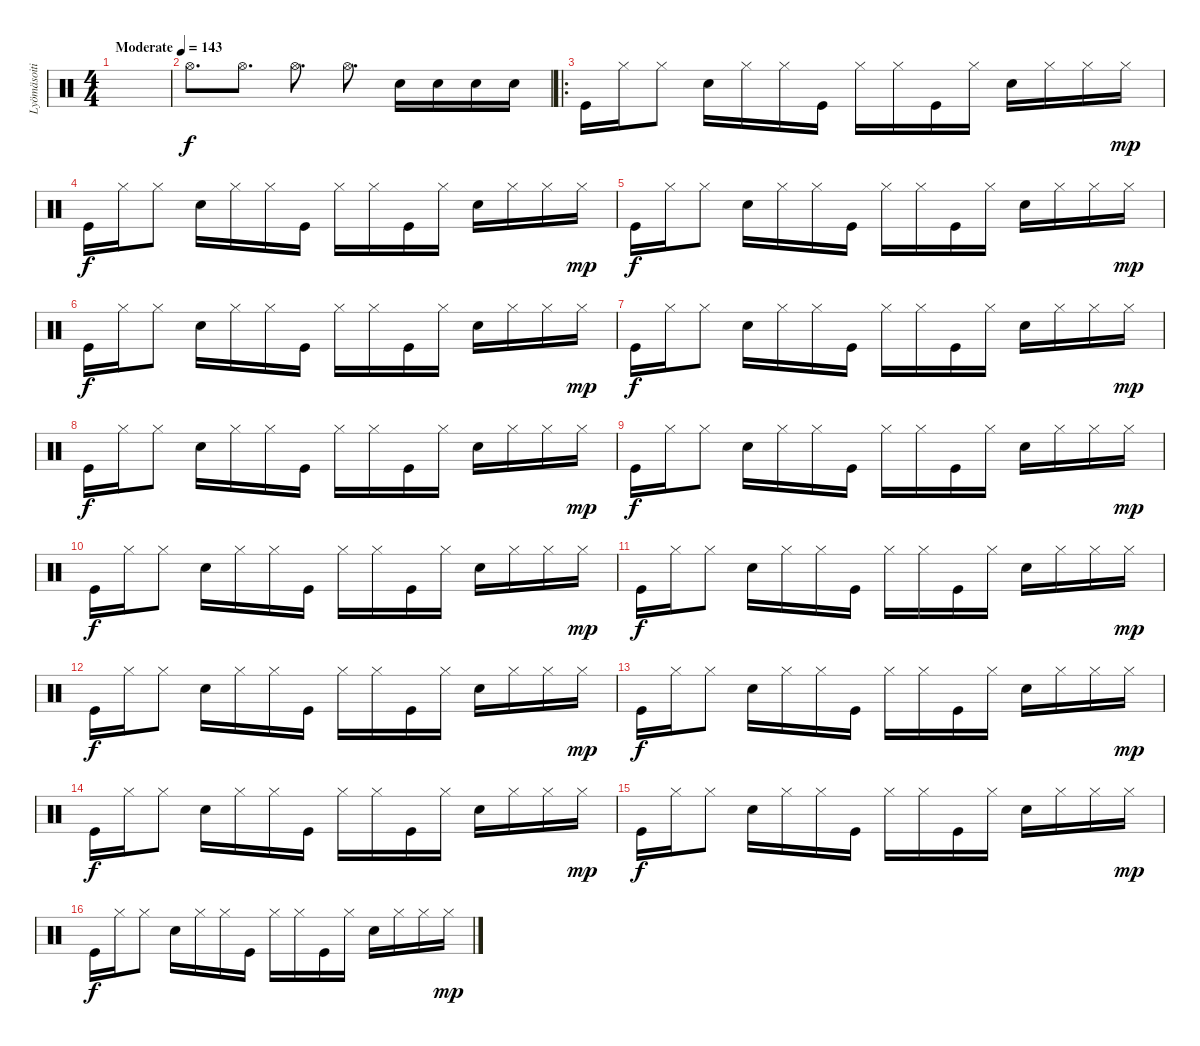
\track ("Lyömäsoitin" "Lyömäsoiti") {instrument percussion}
\staff {score}
\articulation defaults
\ts (4 4)
\tempo (143 "Moderate")
\clef neutral
\ks c
|
"Hi-Hat (open)".8{d} "Hi-Hat (open)".8{d} "Hi-Hat (open)".8{d} "Hi-Hat (open)".8{d} "Snare (hit) 2".16 "Snare (hit) 2".16 "Snare (hit) 2".16 "Snare (hit) 2".16 |
\ro "Kick (hit)".16 "Hi-Hat (closed)".16 "Hi-Hat (closed)".8 "Snare (hit) 2".16 "Hi-Hat (closed)".16 "Hi-Hat (closed)".16 "Kick (hit)".16 "Hi-Hat (closed)".16 "Hi-Hat (closed)".16 "Kick (hit)".16 "Hi-Hat (closed)".16 "Snare (hit) 2".16 "Hi-Hat (closed)".16 "Hi-Hat (closed)".16 "Hi-Hat (closed)".16{dy mp}
|
"Kick (hit)".16{dy f} "Hi-Hat (closed)".16 "Hi-Hat (closed)".8 "Snare (hit) 2".16 "Hi-Hat (closed)".16 "Hi-Hat (closed)".16 "Kick (hit)".16 "Hi-Hat (closed)".16 "Hi-Hat (closed)".16 "Kick (hit)".16 "Hi-Hat (closed)".16 "Snare (hit) 2".16 "Hi-Hat (closed)".16 "Hi-Hat (closed)".16 "Hi-Hat (closed)".16{dy mp} |
"Kick (hit)".16{dy f} "Hi-Hat (closed)".16 "Hi-Hat (closed)".8 "Snare (hit) 2".16 "Hi-Hat (closed)".16 "Hi-Hat (closed)".16 "Kick (hit)".16 "Hi-Hat (closed)".16 "Hi-Hat (closed)".16 "Kick (hit)".16 "Hi-Hat (closed)".16 "Snare (hit) 2".16 "Hi-Hat (closed)".16 "Hi-Hat (closed)".16 "Hi-Hat (closed)".16{dy mp} |
"Kick (hit)".16{dy f} "Hi-Hat (closed)".16 "Hi-Hat (closed)".8 "Snare (hit) 2".16 "Hi-Hat (closed)".16 "Hi-Hat (closed)".16 "Kick (hit)".16 "Hi-Hat (closed)".16 "Hi-Hat (closed)".16 "Kick (hit)".16 "Hi-Hat (closed)".16 "Snare (hit) 2".16 "Hi-Hat (closed)".16 "Hi-Hat (closed)".16 "Hi-Hat (closed)".16{dy mp} |
"Kick (hit)".16{dy f} "Hi-Hat (closed)".16 "Hi-Hat (closed)".8 "Snare (hit) 2".16 "Hi-Hat (closed)".16 "Hi-Hat (closed)".16 "Kick (hit)".16 "Hi-Hat (closed)".16 "Hi-Hat (closed)".16 "Kick (hit)".16 "Hi-Hat (closed)".16 "Snare (hit) 2".16 "Hi-Hat (closed)".16 "Hi-Hat (closed)".16 "Hi-Hat (closed)".16{dy mp} |
"Kick (hit)".16{dy f} "Hi-Hat (closed)".16 "Hi-Hat (closed)".8 "Snare (hit) 2".16 "Hi-Hat (closed)".16 "Hi-Hat (closed)".16 "Kick (hit)".16 "Hi-Hat (closed)".16 "Hi-Hat (closed)".16 "Kick (hit)".16 "Hi-Hat (closed)".16 "Snare (hit) 2".16 "Hi-Hat (closed)".16 "Hi-Hat (closed)".16 "Hi-Hat (closed)".16{dy mp} |
"Kick (hit)".16{dy f} "Hi-Hat (closed)".16 "Hi-Hat (closed)".8 "Snare (hit) 2".16 "Hi-Hat (closed)".16 "Hi-Hat (closed)".16 "Kick (hit)".16 "Hi-Hat (closed)".16 "Hi-Hat (closed)".16 "Kick (hit)".16 "Hi-Hat (closed)".16 "Snare (hit) 2".16 "Hi-Hat (closed)".16 "Hi-Hat (closed)".16 "Hi-Hat (closed)".16{dy mp} |
"Kick (hit)".16{dy f} "Hi-Hat (closed)".16 "Hi-Hat (closed)".8 "Snare (hit) 2".16 "Hi-Hat (closed)".16 "Hi-Hat (closed)".16 "Kick (hit)".16 "Hi-Hat (closed)".16 "Hi-Hat (closed)".16 "Kick (hit)".16 "Hi-Hat (closed)".16 "Snare (hit) 2".16 "Hi-Hat (closed)".16 "Hi-Hat (closed)".16 "Hi-Hat (closed)".16{dy mp} |
"Kick (hit)".16{dy f} "Hi-Hat (closed)".16 "Hi-Hat (closed)".8 "Snare (hit) 2".16 "Hi-Hat (closed)".16 "Hi-Hat (closed)".16 "Kick (hit)".16 "Hi-Hat (closed)".16 "Hi-Hat (closed)".16 "Kick (hit)".16 "Hi-Hat (closed)".16 "Snare (hit) 2".16 "Hi-Hat (closed)".16 "Hi-Hat (closed)".16 "Hi-Hat (closed)".16{dy mp} |
"Kick (hit)".16{dy f} "Hi-Hat (closed)".16 "Hi-Hat (closed)".8 "Snare (hit) 2".16 "Hi-Hat (closed)".16 "Hi-Hat (closed)".16 "Kick (hit)".16 "Hi-Hat (closed)".16 "Hi-Hat (closed)".16 "Kick (hit)".16 "Hi-Hat (closed)".16 "Snare (hit) 2".16 "Hi-Hat (closed)".16 "Hi-Hat (closed)".16 "Hi-Hat (closed)".16{dy mp} |
"Kick (hit)".16{dy f} "Hi-Hat (closed)".16 "Hi-Hat (closed)".8 "Snare (hit) 2".16 "Hi-Hat (closed)".16 "Hi-Hat (closed)".16 "Kick (hit)".16 "Hi-Hat (closed)".16 "Hi-Hat (closed)".16 "Kick (hit)".16 "Hi-Hat (closed)".16 "Snare (hit) 2".16 "Hi-Hat (closed)".16 "Hi-Hat (closed)".16 "Hi-Hat (closed)".16{dy mp} |
"Kick (hit)".16{dy f} "Hi-Hat (closed)".16 "Hi-Hat (closed)".8 "Snare (hit) 2".16 "Hi-Hat (closed)".16 "Hi-Hat (closed)".16 "Kick (hit)".16 "Hi-Hat (closed)".16 "Hi-Hat (closed)".16 "Kick (hit)".16 "Hi-Hat (closed)".16 "Snare (hit) 2".16 "Hi-Hat (closed)".16 "Hi-Hat (closed)".16 "Hi-Hat (closed)".16{dy mp} |
"Kick (hit)".16{dy f} "Hi-Hat (closed)".16 "Hi-Hat (closed)".8 "Snare (hit) 2".16 "Hi-Hat (closed)".16 "Hi-Hat (closed)".16 "Kick (hit)".16 "Hi-Hat (closed)".16 "Hi-Hat (closed)".16 "Kick (hit)".16 "Hi-Hat (closed)".16 "Snare (hit) 2".16 "Hi-Hat (closed)".16 "Hi-Hat (closed)".16 "Hi-Hat (closed)".16{dy mp} |
"Kick (hit)".16{dy f} "Hi-Hat (closed)".16 "Hi-Hat (closed)".8 "Snare (hit) 2".16 "Hi-Hat (closed)".16 "Hi-Hat (closed)".16 "Kick (hit)".16 "Hi-Hat (closed)".16 "Hi-Hat (closed)".16 "Kick (hit)".16 "Hi-Hat (closed)".16 "Snare (hit) 2".16 "Hi-Hat (closed)".16 "Hi-Hat (closed)".16 "Hi-Hat (closed)".16{dy mp}
